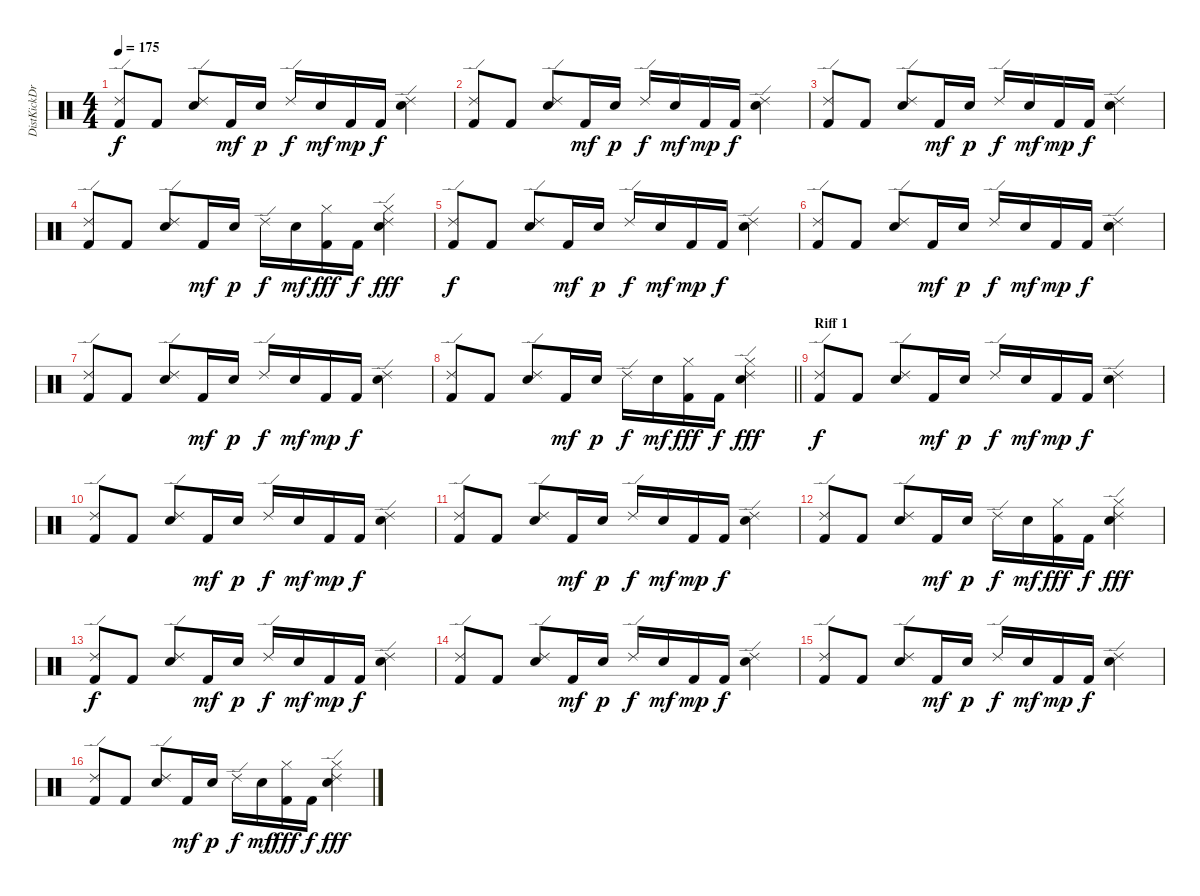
\track ("DistKickDrums" "DistKickDr") {instrument percussion}
\staff {score}
\articulation defaults
\ts (4 4)
\tempo 175
\clef neutral
\ks c
("Kick (hit) 2" "Ride (edge) 2").8{dy f} "Kick (hit) 2".8 ("Snare (hit) 2" "Ride (edge) 2").8 "Kick (hit) 2".16{dy mf} "Snare (hit) 2".16{dy p} "Ride (edge) 2".16{dy f} "Snare (hit) 2".16{dy mf} "Kick (hit) 2".16{dy mp} "Kick (hit) 2".16{dy f} ("Snare (hit) 2" "Ride (edge) 2").4 |
("Kick (hit) 2" "Ride (edge) 2").8 "Kick (hit) 2".8 ("Snare (hit) 2" "Ride (edge) 2").8 "Kick (hit) 2".16{dy mf} "Snare (hit) 2".16{dy p} "Ride (edge) 2".16{dy f} "Snare (hit) 2".16{dy mf} "Kick (hit) 2".16{dy mp} "Kick (hit) 2".16{dy f} ("Snare (hit) 2" "Ride (edge) 2").4 |
("Kick (hit) 2" "Ride (edge) 2").8 "Kick (hit) 2".8 ("Snare (hit) 2" "Ride (edge) 2").8 "Kick (hit) 2".16{dy mf} "Snare (hit) 2".16{dy p} "Ride (edge) 2".16{dy f} "Snare (hit) 2".16{dy mf} "Kick (hit) 2".16{dy mp} "Kick (hit) 2".16{dy f} ("Snare (hit) 2" "Ride (edge) 2").4 |
("Kick (hit) 2" "Ride (edge) 2").8 "Kick (hit) 2".8 ("Snare (hit) 2" "Ride (edge) 2").8 "Kick (hit) 2".16{dy mf} "Snare (hit) 2".16{dy p} "Ride (edge) 2".16{dy f} "Snare (hit) 2".16{dy mf} ("Kick (hit) 2" "Cowbell high (tip)").16{dy fff} "Kick (hit) 2".16{dy f} ("Snare (hit) 2" "Ride (edge) 2" "Cowbell high (tip)").4{dy fff} |
("Kick (hit) 2" "Ride (edge) 2").8{dy f} "Kick (hit) 2".8 ("Snare (hit) 2" "Ride (edge) 2").8 "Kick (hit) 2".16{dy mf} "Snare (hit) 2".16{dy p} "Ride (edge) 2".16{dy f} "Snare (hit) 2".16{dy mf} "Kick (hit) 2".16{dy mp} "Kick (hit) 2".16{dy f} ("Snare (hit) 2" "Ride (edge) 2").4 |
("Kick (hit) 2" "Ride (edge) 2").8 "Kick (hit) 2".8 ("Snare (hit) 2" "Ride (edge) 2").8 "Kick (hit) 2".16{dy mf} "Snare (hit) 2".16{dy p} "Ride (edge) 2".16{dy f} "Snare (hit) 2".16{dy mf} "Kick (hit) 2".16{dy mp} "Kick (hit) 2".16{dy f} ("Snare (hit) 2" "Ride (edge) 2").4 |
("Kick (hit) 2" "Ride (edge) 2").8 "Kick (hit) 2".8 ("Snare (hit) 2" "Ride (edge) 2").8 "Kick (hit) 2".16{dy mf} "Snare (hit) 2".16{dy p} "Ride (edge) 2".16{dy f} "Snare (hit) 2".16{dy mf} "Kick (hit) 2".16{dy mp} "Kick (hit) 2".16{dy f} ("Snare (hit) 2" "Ride (edge) 2").4 |
\barLineRight lightlight
("Kick (hit) 2" "Ride (edge) 2").8 "Kick (hit) 2".8 ("Snare (hit) 2" "Ride (edge) 2").8 "Kick (hit) 2".16{dy mf} "Snare (hit) 2".16{dy p} "Ride (edge) 2".16{dy f} "Snare (hit) 2".16{dy mf} ("Kick (hit) 2" "Cowbell high (tip)").16{dy fff} "Kick (hit) 2".16{dy f} ("Snare (hit) 2" "Ride (edge) 2" "Cowbell high (tip)").4{dy fff} |
\section ("" "Riff 1")
("Kick (hit) 2" "Ride (edge) 2").8{dy f} "Kick (hit) 2".8 ("Snare (hit) 2" "Ride (edge) 2").8 "Kick (hit) 2".16{dy mf} "Snare (hit) 2".16{dy p} "Ride (edge) 2".16{dy f} "Snare (hit) 2".16{dy mf} "Kick (hit) 2".16{dy mp} "Kick (hit) 2".16{dy f} ("Snare (hit) 2" "Ride (edge) 2").4 |
("Kick (hit) 2" "Ride (edge) 2").8 "Kick (hit) 2".8 ("Snare (hit) 2" "Ride (edge) 2").8 "Kick (hit) 2".16{dy mf} "Snare (hit) 2".16{dy p} "Ride (edge) 2".16{dy f} "Snare (hit) 2".16{dy mf} "Kick (hit) 2".16{dy mp} "Kick (hit) 2".16{dy f} ("Snare (hit) 2" "Ride (edge) 2").4 |
("Kick (hit) 2" "Ride (edge) 2").8 "Kick (hit) 2".8 ("Snare (hit) 2" "Ride (edge) 2").8 "Kick (hit) 2".16{dy mf} "Snare (hit) 2".16{dy p} "Ride (edge) 2".16{dy f} "Snare (hit) 2".16{dy mf} "Kick (hit) 2".16{dy mp} "Kick (hit) 2".16{dy f} ("Snare (hit) 2" "Ride (edge) 2").4 |
("Kick (hit) 2" "Ride (edge) 2").8 "Kick (hit) 2".8 ("Snare (hit) 2" "Ride (edge) 2").8 "Kick (hit) 2".16{dy mf} "Snare (hit) 2".16{dy p} "Ride (edge) 2".16{dy f} "Snare (hit) 2".16{dy mf} ("Kick (hit) 2" "Cowbell high (tip)").16{dy fff} "Kick (hit) 2".16{dy f} ("Snare (hit) 2" "Ride (edge) 2" "Cowbell high (tip)").4{dy fff} |
("Kick (hit) 2" "Ride (edge) 2").8{dy f} "Kick (hit) 2".8 ("Snare (hit) 2" "Ride (edge) 2").8 "Kick (hit) 2".16{dy mf} "Snare (hit) 2".16{dy p} "Ride (edge) 2".16{dy f} "Snare (hit) 2".16{dy mf} "Kick (hit) 2".16{dy mp} "Kick (hit) 2".16{dy f} ("Snare (hit) 2" "Ride (edge) 2").4 |
("Kick (hit) 2" "Ride (edge) 2").8 "Kick (hit) 2".8 ("Snare (hit) 2" "Ride (edge) 2").8 "Kick (hit) 2".16{dy mf} "Snare (hit) 2".16{dy p} "Ride (edge) 2".16{dy f} "Snare (hit) 2".16{dy mf} "Kick (hit) 2".16{dy mp} "Kick (hit) 2".16{dy f} ("Snare (hit) 2" "Ride (edge) 2").4 |
("Kick (hit) 2" "Ride (edge) 2").8 "Kick (hit) 2".8 ("Snare (hit) 2" "Ride (edge) 2").8 "Kick (hit) 2".16{dy mf} "Snare (hit) 2".16{dy p} "Ride (edge) 2".16{dy f} "Snare (hit) 2".16{dy mf} "Kick (hit) 2".16{dy mp} "Kick (hit) 2".16{dy f} ("Snare (hit) 2" "Ride (edge) 2").4 |
("Kick (hit) 2" "Ride (edge) 2").8 "Kick (hit) 2".8 ("Snare (hit) 2" "Ride (edge) 2").8 "Kick (hit) 2".16{dy mf} "Snare (hit) 2".16{dy p} "Ride (edge) 2".16{dy f} "Snare (hit) 2".16{dy mf} ("Kick (hit) 2" "Cowbell high (tip)").16{dy fff} "Kick (hit) 2".16{dy f} ("Snare (hit) 2" "Ride (edge) 2" "Cowbell high (tip)").4{dy fff}
